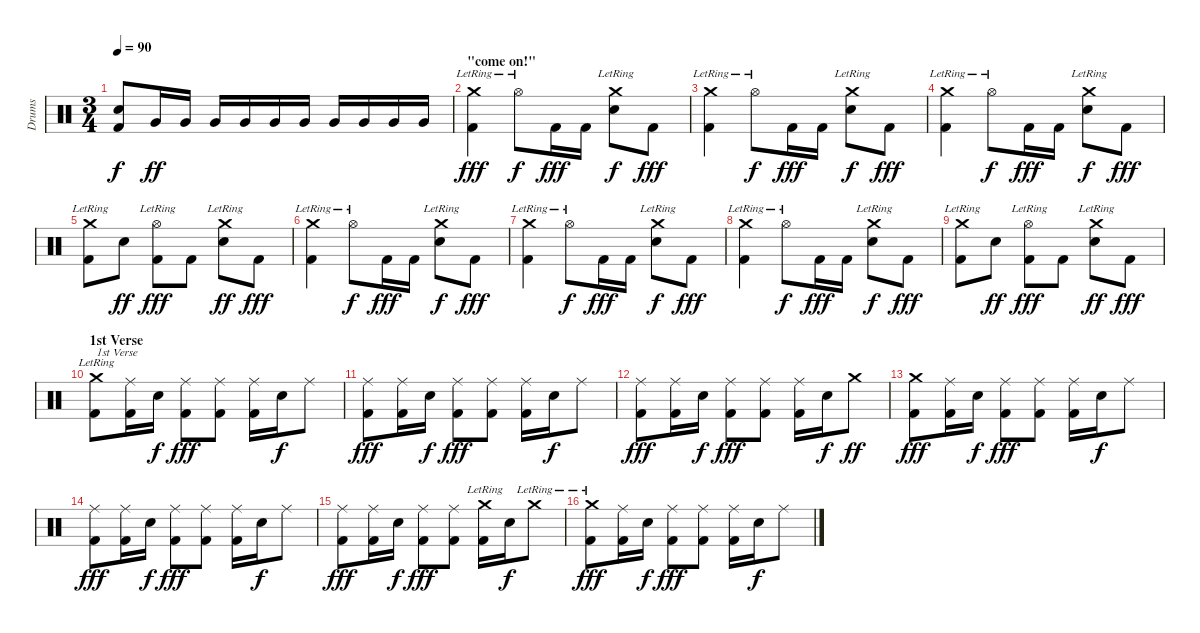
\track ("Drums" "Drums") {instrument percussion}
\staff {score}
\articulation defaults
\ts (3 4)
\tempo 90
\clef neutral
\ks c
("Snare (hit) 2" "Kick (hit) 2").8{dy f} "Very Low Tom (hit)".16{dy ff} "Very Low Tom (hit)".16 "Very Low Tom (hit)".16 "Very Low Tom (hit)".16 "Very Low Tom (hit)".16 "Very Low Tom (hit)".16 "Very Low Tom (hit)".16 "Very Low Tom (hit)".16 "Very Low Tom (hit)".16 "Very Low Tom (hit)".16 |
\section ("" "\"come on!\"")
("Crash medium (hit)"{lr} "Kick (hit) 2").4{dy fff} "Hi-Hat (open)"{lr}.8{dy f} "Kick (hit) 2".16{dy fff} "Kick (hit) 2".16 ("Crash medium (hit)"{lr} "Snare (hit) 2").8{dy f} "Kick (hit) 2".8{dy fff} |
("Crash medium (hit)"{lr} "Kick (hit) 2").4 "Hi-Hat (open)"{lr}.8{dy f} "Kick (hit) 2".16{dy fff} "Kick (hit) 2".16 ("Crash medium (hit)"{lr} "Snare (hit) 2").8{dy f} "Kick (hit) 2".8{dy fff} |
("Crash medium (hit)"{lr} "Kick (hit) 2").4 "Hi-Hat (open)"{lr}.8{dy f} "Kick (hit) 2".16{dy fff} "Kick (hit) 2".16 ("Crash medium (hit)"{lr} "Snare (hit) 2").8{dy f} "Kick (hit) 2".8{dy fff} |
("Crash medium (hit)"{lr} "Kick (hit) 2").8 "Snare (hit) 2".8{dy ff} ("Hi-Hat (open)"{lr} "Kick (hit) 2").8{dy fff} "Kick (hit) 2".8 ("Crash medium (hit)"{lr} "Snare (hit) 2").8{dy ff} "Kick (hit) 2".8{dy fff} |
("Crash medium (hit)"{lr} "Kick (hit) 2").4 "Hi-Hat (open)"{lr}.8{dy f} "Kick (hit) 2".16{dy fff} "Kick (hit) 2".16 ("Crash medium (hit)"{lr} "Snare (hit) 2").8{dy f} "Kick (hit) 2".8{dy fff} |
("Crash medium (hit)"{lr} "Kick (hit) 2").4 "Hi-Hat (open)"{lr}.8{dy f} "Kick (hit) 2".16{dy fff} "Kick (hit) 2".16 ("Crash medium (hit)"{lr} "Snare (hit) 2").8{dy f} "Kick (hit) 2".8{dy fff} |
("Crash medium (hit)"{lr} "Kick (hit) 2").4 "Hi-Hat (open)"{lr}.8{dy f} "Kick (hit) 2".16{dy fff} "Kick (hit) 2".16 ("Crash medium (hit)"{lr} "Snare (hit) 2").8{dy f} "Kick (hit) 2".8{dy fff} |
("Crash medium (hit)"{lr} "Kick (hit) 2").8 "Snare (hit) 2".8{dy ff} ("Hi-Hat (open)"{lr} "Kick (hit) 2").8{dy fff} "Kick (hit) 2".8 ("Crash medium (hit)"{lr} "Snare (hit) 2").8{dy ff} "Kick (hit) 2".8{dy fff} |
\section ("" "1st Verse")
("Crash medium (hit)"{lr} "Kick (hit) 2").8{txt "1st Verse"} ("Ride (middle)" "Kick (hit) 2").16 "Snare (hit) 2".16{dy f} ("Ride (middle)" "Kick (hit) 2").8{dy fff} ("Ride (middle)" "Kick (hit) 2").8 ("Ride (middle)" "Kick (hit) 2").16 "Snare (hit) 2".16{dy f} "Ride (middle)".8 |
("Ride (middle)" "Kick (hit) 2").8{dy fff} ("Ride (middle)" "Kick (hit) 2").16 "Snare (hit) 2".16{dy f} ("Ride (middle)" "Kick (hit) 2").8{dy fff} ("Ride (middle)" "Kick (hit) 2").8 ("Ride (middle)" "Kick (hit) 2").16 "Snare (hit) 2".16{dy f} "Ride (middle)".8 |
("Ride (middle)" "Kick (hit) 2").8{dy fff} ("Ride (middle)" "Kick (hit) 2").16 "Snare (hit) 2".16{dy f} ("Ride (middle)" "Kick (hit) 2").8{dy fff} ("Ride (middle)" "Kick (hit) 2").8 ("Ride (middle)" "Kick (hit) 2").16 "Snare (hit) 2".16{dy f} "Crash medium (hit)".8{dy ff} |
("Crash medium (hit)" "Kick (hit) 2").8{dy fff} ("Ride (middle)" "Kick (hit) 2").16 "Snare (hit) 2".16{dy f} ("Ride (middle)" "Kick (hit) 2").8{dy fff} ("Ride (middle)" "Kick (hit) 2").8 ("Ride (middle)" "Kick (hit) 2").16 "Snare (hit) 2".16{dy f} "Ride (middle)".8 |
("Ride (middle)" "Kick (hit) 2").8{dy fff} ("Ride (middle)" "Kick (hit) 2").16 "Snare (hit) 2".16{dy f} ("Ride (middle)" "Kick (hit) 2").8{dy fff} ("Ride (middle)" "Kick (hit) 2").8 ("Ride (middle)" "Kick (hit) 2").16 "Snare (hit) 2".16{dy f} "Ride (middle)".8 |
("Ride (middle)" "Kick (hit) 2").8{dy fff} ("Ride (middle)" "Kick (hit) 2").16 "Snare (hit) 2".16{dy f} ("Ride (middle)" "Kick (hit) 2").8{dy fff} ("Ride (middle)" "Kick (hit) 2").8 ("Crash medium (hit)"{lr} "Kick (hit) 2").16 "Snare (hit) 2".16{dy f} "Crash medium (hit)"{lr}.8 |
("Crash medium (hit)"{lr} "Kick (hit) 2").8{dy fff} ("Ride (middle)" "Kick (hit) 2").16 "Snare (hit) 2".16{dy f} ("Ride (middle)" "Kick (hit) 2").8{dy fff} ("Ride (middle)" "Kick (hit) 2").8 ("Ride (middle)" "Kick (hit) 2").16 "Snare (hit) 2".16{dy f} "Ride (middle)".8
